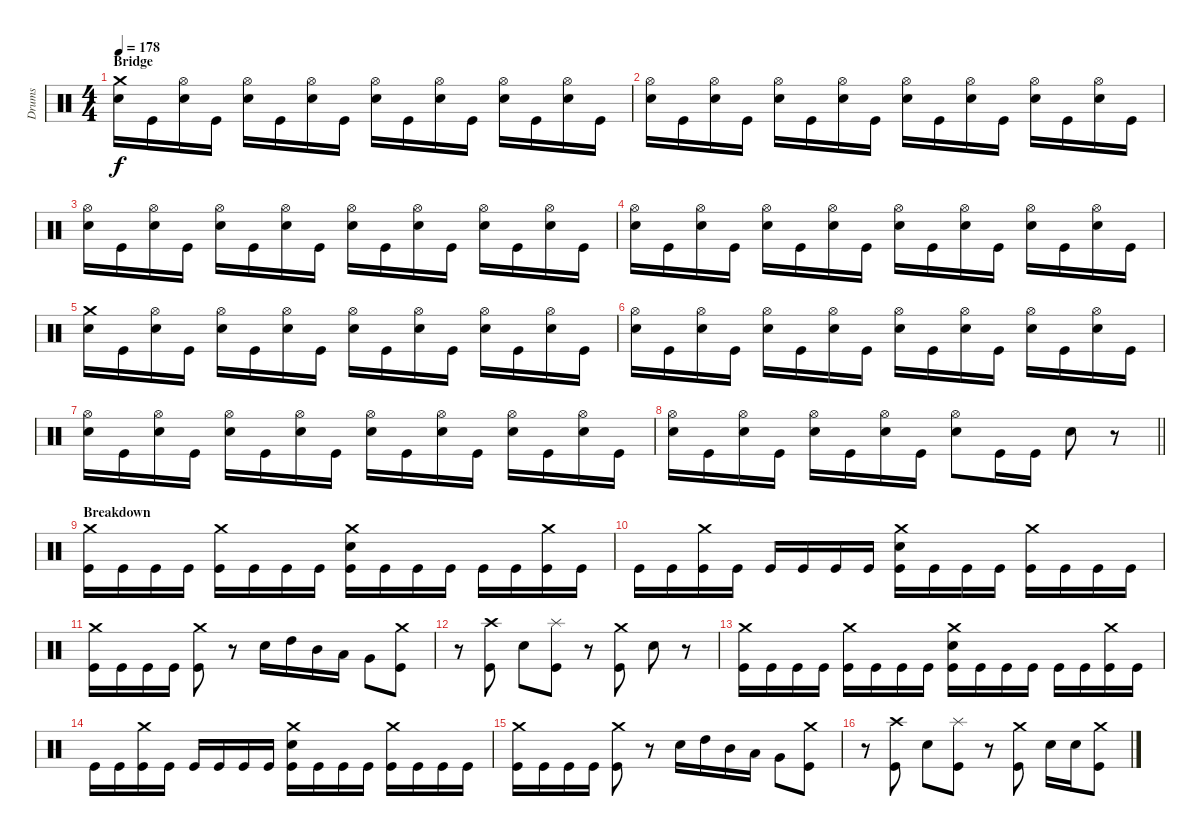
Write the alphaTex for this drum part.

\track ("Drums" "Drums") {instrument percussion}
\staff {score}
\articulation defaults
\ts (4 4)
\section ("" "Bridge")
\tempo 178
\clef neutral
\ks c
("Crash medium (hit)" "Electric Snare (hit)").16{dy f} "Kick (hit)".16 ("Hi-Hat (open)" "Electric Snare (hit)").16 "Kick (hit)".16 ("Hi-Hat (open)" "Electric Snare (hit)").16 "Kick (hit)".16 ("Hi-Hat (open)" "Electric Snare (hit)").16 "Kick (hit)".16 ("Hi-Hat (open)" "Electric Snare (hit)").16 "Kick (hit)".16 ("Hi-Hat (open)" "Electric Snare (hit)").16 "Kick (hit)".16 ("Hi-Hat (open)" "Electric Snare (hit)").16 "Kick (hit)".16 ("Hi-Hat (open)" "Electric Snare (hit)").16 "Kick (hit)".16 |
("Hi-Hat (open)" "Electric Snare (hit)").16 "Kick (hit)".16 ("Hi-Hat (open)" "Electric Snare (hit)").16 "Kick (hit)".16 ("Hi-Hat (open)" "Electric Snare (hit)").16 "Kick (hit)".16 ("Hi-Hat (open)" "Electric Snare (hit)").16 "Kick (hit)".16 ("Hi-Hat (open)" "Electric Snare (hit)").16 "Kick (hit)".16 ("Hi-Hat (open)" "Electric Snare (hit)").16 "Kick (hit)".16 ("Hi-Hat (open)" "Electric Snare (hit)").16 "Kick (hit)".16 ("Hi-Hat (open)" "Electric Snare (hit)").16 "Kick (hit)".16 |
("Hi-Hat (open)" "Electric Snare (hit)").16 "Kick (hit)".16 ("Hi-Hat (open)" "Electric Snare (hit)").16 "Kick (hit)".16 ("Hi-Hat (open)" "Electric Snare (hit)").16 "Kick (hit)".16 ("Hi-Hat (open)" "Electric Snare (hit)").16 "Kick (hit)".16 ("Hi-Hat (open)" "Electric Snare (hit)").16 "Kick (hit)".16 ("Hi-Hat (open)" "Electric Snare (hit)").16 "Kick (hit)".16 ("Hi-Hat (open)" "Electric Snare (hit)").16 "Kick (hit)".16 ("Hi-Hat (open)" "Electric Snare (hit)").16 "Kick (hit)".16 |
("Hi-Hat (open)" "Electric Snare (hit)").16 "Kick (hit)".16 ("Hi-Hat (open)" "Electric Snare (hit)").16 "Kick (hit)".16 ("Hi-Hat (open)" "Electric Snare (hit)").16 "Kick (hit)".16 ("Hi-Hat (open)" "Electric Snare (hit)").16 "Kick (hit)".16 ("Hi-Hat (open)" "Electric Snare (hit)").16 "Kick (hit)".16 ("Hi-Hat (open)" "Electric Snare (hit)").16 "Kick (hit)".16 ("Hi-Hat (open)" "Electric Snare (hit)").16 "Kick (hit)".16 ("Hi-Hat (open)" "Electric Snare (hit)").16 "Kick (hit)".16 |
("Crash medium (hit)" "Electric Snare (hit)").16 "Kick (hit)".16 ("Hi-Hat (open)" "Electric Snare (hit)").16 "Kick (hit)".16 ("Hi-Hat (open)" "Electric Snare (hit)").16 "Kick (hit)".16 ("Hi-Hat (open)" "Electric Snare (hit)").16 "Kick (hit)".16 ("Hi-Hat (open)" "Electric Snare (hit)").16 "Kick (hit)".16 ("Hi-Hat (open)" "Electric Snare (hit)").16 "Kick (hit)".16 ("Hi-Hat (open)" "Electric Snare (hit)").16 "Kick (hit)".16 ("Hi-Hat (open)" "Electric Snare (hit)").16 "Kick (hit)".16 |
("Hi-Hat (open)" "Electric Snare (hit)").16 "Kick (hit)".16 ("Hi-Hat (open)" "Electric Snare (hit)").16 "Kick (hit)".16 ("Hi-Hat (open)" "Electric Snare (hit)").16 "Kick (hit)".16 ("Hi-Hat (open)" "Electric Snare (hit)").16 "Kick (hit)".16 ("Hi-Hat (open)" "Electric Snare (hit)").16 "Kick (hit)".16 ("Hi-Hat (open)" "Electric Snare (hit)").16 "Kick (hit)".16 ("Hi-Hat (open)" "Electric Snare (hit)").16 "Kick (hit)".16 ("Hi-Hat (open)" "Electric Snare (hit)").16 "Kick (hit)".16 |
("Hi-Hat (open)" "Electric Snare (hit)").16 "Kick (hit)".16 ("Hi-Hat (open)" "Electric Snare (hit)").16 "Kick (hit)".16 ("Hi-Hat (open)" "Electric Snare (hit)").16 "Kick (hit)".16 ("Hi-Hat (open)" "Electric Snare (hit)").16 "Kick (hit)".16 ("Hi-Hat (open)" "Electric Snare (hit)").16 "Kick (hit)".16 ("Hi-Hat (open)" "Electric Snare (hit)").16 "Kick (hit)".16 ("Hi-Hat (open)" "Electric Snare (hit)").16 "Kick (hit)".16 ("Hi-Hat (open)" "Electric Snare (hit)").16 "Kick (hit)".16 |
\barLineRight lightlight
("Hi-Hat (open)" "Electric Snare (hit)").16 "Kick (hit)".16 ("Hi-Hat (open)" "Electric Snare (hit)").16 "Kick (hit)".16 ("Hi-Hat (open)" "Electric Snare (hit)").16 "Kick (hit)".16 ("Hi-Hat (open)" "Electric Snare (hit)").16 "Kick (hit)".16 ("Hi-Hat (open)" "Electric Snare (hit)").8 "Kick (hit)".16 "Kick (hit)".16 "Electric Snare (hit)".8 r.8 |
\section ("" "Breakdown")
("Crash medium (hit)" "Kick (hit)").16 "Kick (hit)".16 "Kick (hit)".16 "Kick (hit)".16 ("Crash medium (hit)" "Kick (hit)").16 "Kick (hit)".16 "Kick (hit)".16 "Kick (hit)".16 ("Crash medium (hit)" "Electric Snare (hit)" "Kick (hit)").16 "Kick (hit)".16 "Kick (hit)".16 "Kick (hit)".16 "Kick (hit)".16 "Kick (hit)".16 ("Crash medium (hit)" "Kick (hit)").16 "Kick (hit)".16 |
"Kick (hit)".16 "Kick (hit)".16 ("Crash medium (hit)" "Kick (hit)").16 "Kick (hit)".16 "Kick (hit)".16 "Kick (hit)".16 "Kick (hit)".16 "Kick (hit)".16 ("Crash medium (hit)" "Electric Snare (hit)" "Kick (hit)").16 "Kick (hit)".16 "Kick (hit)".16 "Kick (hit)".16 ("Crash medium (hit)" "Kick (hit)").16 "Kick (hit)".16 "Kick (hit)".16 "Kick (hit)".16 |
("Crash medium (hit)" "Kick (hit)").16 "Kick (hit)".16 "Kick (hit)".16 "Kick (hit)".16 ("Crash medium (hit)" "Kick (hit)").8 r.8 "Electric Snare (hit)".16 "High Tom (hit)".16 "Mid Tom (hit)".16 "Low Tom (hit)".16 "Very Low Tom (hit)".8 ("Crash medium (hit)" "Kick (hit)").8 |
r.8 ("Crash high (hit)" "Kick (hit)").8 "Electric Snare (hit)".8 ("Splash (hit)" "Kick (hit)").8 r.8 ("Crash medium (hit)" "Kick (hit)").8 "Electric Snare (hit)".8 r.8 |
("Crash medium (hit)" "Kick (hit)").16 "Kick (hit)".16 "Kick (hit)".16 "Kick (hit)".16 ("Crash medium (hit)" "Kick (hit)").16 "Kick (hit)".16 "Kick (hit)".16 "Kick (hit)".16 ("Crash medium (hit)" "Electric Snare (hit)" "Kick (hit)").16 "Kick (hit)".16 "Kick (hit)".16 "Kick (hit)".16 "Kick (hit)".16 "Kick (hit)".16 ("Crash medium (hit)" "Kick (hit)").16 "Kick (hit)".16 |
"Kick (hit)".16 "Kick (hit)".16 ("Crash medium (hit)" "Kick (hit)").16 "Kick (hit)".16 "Kick (hit)".16 "Kick (hit)".16 "Kick (hit)".16 "Kick (hit)".16 ("Crash medium (hit)" "Electric Snare (hit)" "Kick (hit)").16 "Kick (hit)".16 "Kick (hit)".16 "Kick (hit)".16 ("Crash medium (hit)" "Kick (hit)").16 "Kick (hit)".16 "Kick (hit)".16 "Kick (hit)".16 |
("Crash medium (hit)" "Kick (hit)").16 "Kick (hit)".16 "Kick (hit)".16 "Kick (hit)".16 ("Crash medium (hit)" "Kick (hit)").8 r.8 "Electric Snare (hit)".16 "High Tom (hit)".16 "Mid Tom (hit)".16 "Low Tom (hit)".16 "Very Low Tom (hit)".8 ("Crash medium (hit)" "Kick (hit)").8 |
r.8 ("Crash high (hit)" "Kick (hit)").8 "Electric Snare (hit)".8 ("Splash (hit)" "Kick (hit)").8 r.8 ("Crash medium (hit)" "Kick (hit)").8 "Electric Snare (hit)".16 "Electric Snare (hit)".16 ("Crash medium (hit)" "Kick (hit)").8
